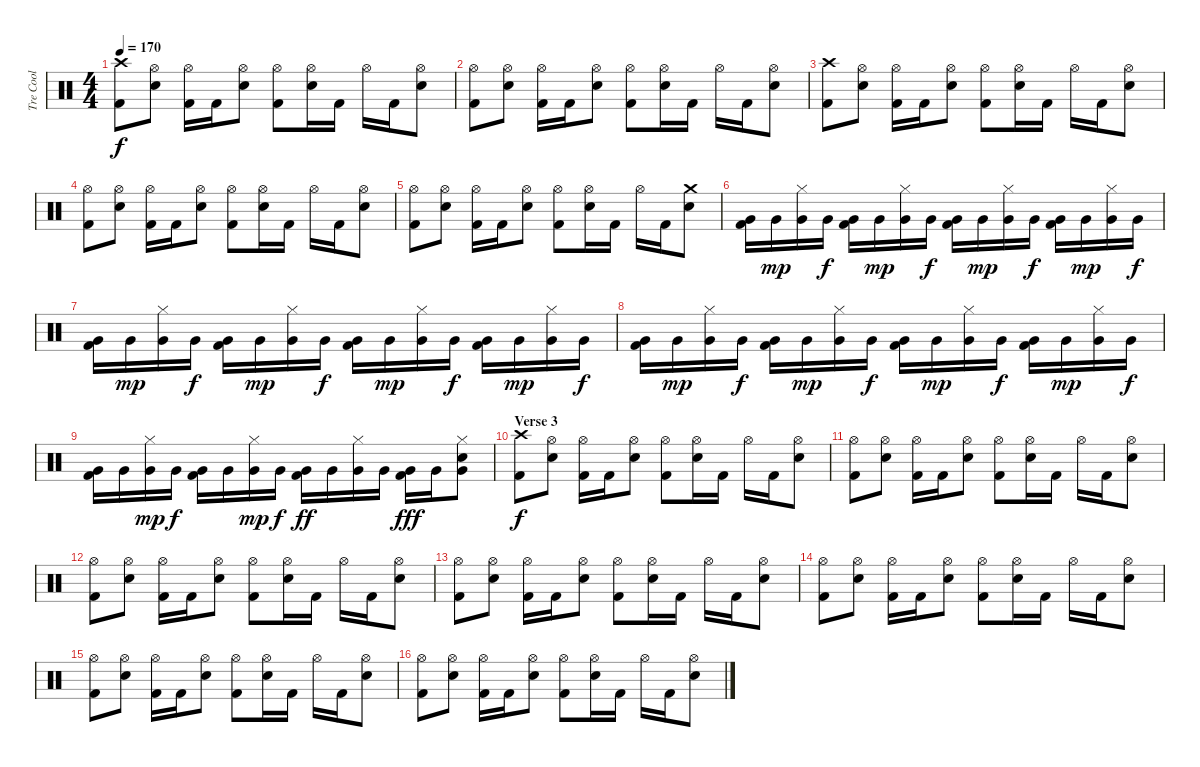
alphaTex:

\track ("Tre Cool" "Tre Cool") {instrument percussion}
\staff {score}
\articulation defaults
\ts (4 4)
\tempo 170
\clef neutral
\ks c
("Crash high (hit)" "Kick (hit) 2").8{dy f} ("Hi-Hat (open)" "Electric Snare (hit)").8 ("Hi-Hat (open)" "Kick (hit) 2").16 "Kick (hit) 2".16 ("Hi-Hat (open)" "Electric Snare (hit)").8 ("Hi-Hat (open)" "Kick (hit) 2").8 ("Hi-Hat (open)" "Electric Snare (hit)").16 "Kick (hit) 2".16 "Hi-Hat (open)".16 "Kick (hit) 2".16 ("Hi-Hat (open)" "Electric Snare (hit)").8 |
("Hi-Hat (open)" "Kick (hit) 2").8 ("Hi-Hat (open)" "Electric Snare (hit)").8 ("Hi-Hat (open)" "Kick (hit) 2").16 "Kick (hit) 2".16 ("Hi-Hat (open)" "Electric Snare (hit)").8 ("Hi-Hat (open)" "Kick (hit) 2").8 ("Hi-Hat (open)" "Electric Snare (hit)").16 "Kick (hit) 2".16 "Hi-Hat (open)".16 "Kick (hit) 2".16 ("Hi-Hat (open)" "Electric Snare (hit)").8 |
("Crash high (hit)" "Kick (hit) 2").8 ("Hi-Hat (open)" "Electric Snare (hit)").8 ("Hi-Hat (open)" "Kick (hit) 2").16 "Kick (hit) 2".16 ("Hi-Hat (open)" "Electric Snare (hit)").8 ("Hi-Hat (open)" "Kick (hit) 2").8 ("Hi-Hat (open)" "Electric Snare (hit)").16 "Kick (hit) 2".16 "Hi-Hat (open)".16 "Kick (hit) 2".16 ("Hi-Hat (open)" "Electric Snare (hit)").8 |
("Hi-Hat (open)" "Kick (hit) 2").8 ("Hi-Hat (open)" "Electric Snare (hit)").8 ("Hi-Hat (open)" "Kick (hit) 2").16 "Kick (hit) 2".16 ("Hi-Hat (open)" "Electric Snare (hit)").8 ("Hi-Hat (open)" "Kick (hit) 2").8 ("Hi-Hat (open)" "Electric Snare (hit)").16 "Kick (hit) 2".16 "Hi-Hat (open)".16 "Kick (hit) 2".16 ("Hi-Hat (open)" "Electric Snare (hit)").8 |
("Hi-Hat (open)" "Kick (hit) 2").8 ("Hi-Hat (open)" "Electric Snare (hit)").8 ("Hi-Hat (open)" "Kick (hit) 2").16 "Kick (hit) 2".16 ("Hi-Hat (open)" "Electric Snare (hit)").8 ("Hi-Hat (open)" "Kick (hit) 2").8 ("Hi-Hat (open)" "Electric Snare (hit)").16 "Kick (hit) 2".16 "Hi-Hat (open)".16 "Kick (hit) 2".16 ("Crash medium (hit)" "Electric Snare (hit)").8 |
("Very Low Tom (hit)" "Kick (hit) 2").16 "Very Low Tom (hit)".16{dy mp} ("Hi-Hat (closed)" "Very Low Tom (hit)").16 "Very Low Tom (hit)".16{dy f} ("Very Low Tom (hit)" "Kick (hit) 2").16 "Very Low Tom (hit)".16{dy mp} ("Hi-Hat (closed)" "Very Low Tom (hit)").16 "Very Low Tom (hit)".16{dy f} ("Very Low Tom (hit)" "Kick (hit) 2").16 "Very Low Tom (hit)".16{dy mp} ("Hi-Hat (closed)" "Very Low Tom (hit)").16 "Very Low Tom (hit)".16{dy f} ("Very Low Tom (hit)" "Kick (hit) 2").16 "Very Low Tom (hit)".16{dy mp} ("Hi-Hat (closed)" "Very Low Tom (hit)").16 "Very Low Tom (hit)".16{dy f} |
("Very Low Tom (hit)" "Kick (hit) 2").16 "Very Low Tom (hit)".16{dy mp} ("Hi-Hat (closed)" "Very Low Tom (hit)").16 "Very Low Tom (hit)".16{dy f} ("Very Low Tom (hit)" "Kick (hit) 2").16 "Very Low Tom (hit)".16{dy mp} ("Hi-Hat (closed)" "Very Low Tom (hit)").16 "Very Low Tom (hit)".16{dy f} ("Very Low Tom (hit)" "Kick (hit) 2").16 "Very Low Tom (hit)".16{dy mp} ("Hi-Hat (closed)" "Very Low Tom (hit)").16 "Very Low Tom (hit)".16{dy f} ("Very Low Tom (hit)" "Kick (hit) 2").16 "Very Low Tom (hit)".16{dy mp} ("Hi-Hat (closed)" "Very Low Tom (hit)").16 "Very Low Tom (hit)".16{dy f} |
("Very Low Tom (hit)" "Kick (hit) 2").16 "Very Low Tom (hit)".16{dy mp} ("Hi-Hat (closed)" "Very Low Tom (hit)").16 "Very Low Tom (hit)".16{dy f} ("Very Low Tom (hit)" "Kick (hit) 2").16 "Very Low Tom (hit)".16{dy mp} ("Hi-Hat (closed)" "Very Low Tom (hit)").16 "Very Low Tom (hit)".16{dy f} ("Very Low Tom (hit)" "Kick (hit) 2").16 "Very Low Tom (hit)".16{dy mp} ("Hi-Hat (closed)" "Very Low Tom (hit)").16 "Very Low Tom (hit)".16{dy f} ("Very Low Tom (hit)" "Kick (hit) 2").16 "Very Low Tom (hit)".16{dy mp} ("Hi-Hat (closed)" "Very Low Tom (hit)").16 "Very Low Tom (hit)".16{dy f} |
("Very Low Tom (hit)" "Kick (hit) 2").16 "Very Low Tom (hit)".16 ("Hi-Hat (closed)" "Very Low Tom (hit)").16{dy mp} "Very Low Tom (hit)".16{dy f} ("Very Low Tom (hit)" "Kick (hit) 2").16 "Very Low Tom (hit)".16 ("Hi-Hat (closed)" "Very Low Tom (hit)").16{dy mp} "Very Low Tom (hit)".16{dy f} ("Very Low Tom (hit)" "Kick (hit) 2").16{dy ff} "Very Low Tom (hit)".16 ("Hi-Hat (closed)" "Very Low Tom (hit)").16 "Very Low Tom (hit)".16 ("Very Low Tom (hit)" "Kick (hit) 2").16{dy fff} "Very Low Tom (hit)".16 ("Hi-Hat (closed)" "Electric Snare (hit)" "Very Low Tom (hit)").8 |
\section ("" "Verse 3")
("Crash high (hit)" "Kick (hit) 2").8{dy f} ("Hi-Hat (open)" "Electric Snare (hit)").8 ("Hi-Hat (open)" "Kick (hit) 2").16 "Kick (hit) 2".16 ("Hi-Hat (open)" "Electric Snare (hit)").8 ("Hi-Hat (open)" "Kick (hit) 2").8 ("Hi-Hat (open)" "Electric Snare (hit)").16 "Kick (hit) 2".16 "Hi-Hat (open)".16 "Kick (hit) 2".16 ("Hi-Hat (open)" "Electric Snare (hit)").8 |
("Hi-Hat (open)" "Kick (hit) 2").8 ("Hi-Hat (open)" "Electric Snare (hit)").8 ("Hi-Hat (open)" "Kick (hit) 2").16 "Kick (hit) 2".16 ("Hi-Hat (open)" "Electric Snare (hit)").8 ("Hi-Hat (open)" "Kick (hit) 2").8 ("Hi-Hat (open)" "Electric Snare (hit)").16 "Kick (hit) 2".16 "Hi-Hat (open)".16 "Kick (hit) 2".16 ("Hi-Hat (open)" "Electric Snare (hit)").8 |
("Hi-Hat (open)" "Kick (hit) 2").8 ("Hi-Hat (open)" "Electric Snare (hit)").8 ("Hi-Hat (open)" "Kick (hit) 2").16 "Kick (hit) 2".16 ("Hi-Hat (open)" "Electric Snare (hit)").8 ("Hi-Hat (open)" "Kick (hit) 2").8 ("Hi-Hat (open)" "Electric Snare (hit)").16 "Kick (hit) 2".16 "Hi-Hat (open)".16 "Kick (hit) 2".16 ("Hi-Hat (open)" "Electric Snare (hit)").8 |
("Hi-Hat (open)" "Kick (hit) 2").8 ("Hi-Hat (open)" "Electric Snare (hit)").8 ("Hi-Hat (open)" "Kick (hit) 2").16 "Kick (hit) 2".16 ("Hi-Hat (open)" "Electric Snare (hit)").8 ("Hi-Hat (open)" "Kick (hit) 2").8 ("Hi-Hat (open)" "Electric Snare (hit)").16 "Kick (hit) 2".16 "Hi-Hat (open)".16 "Kick (hit) 2".16 ("Hi-Hat (open)" "Electric Snare (hit)").8 |
("Hi-Hat (open)" "Kick (hit) 2").8 ("Hi-Hat (open)" "Electric Snare (hit)").8 ("Hi-Hat (open)" "Kick (hit) 2").16 "Kick (hit) 2".16 ("Hi-Hat (open)" "Electric Snare (hit)").8 ("Hi-Hat (open)" "Kick (hit) 2").8 ("Hi-Hat (open)" "Electric Snare (hit)").16 "Kick (hit) 2".16 "Hi-Hat (open)".16 "Kick (hit) 2".16 ("Hi-Hat (open)" "Electric Snare (hit)").8 |
("Hi-Hat (open)" "Kick (hit) 2").8 ("Hi-Hat (open)" "Electric Snare (hit)").8 ("Hi-Hat (open)" "Kick (hit) 2").16 "Kick (hit) 2".16 ("Hi-Hat (open)" "Electric Snare (hit)").8 ("Hi-Hat (open)" "Kick (hit) 2").8 ("Hi-Hat (open)" "Electric Snare (hit)").16 "Kick (hit) 2".16 "Hi-Hat (open)".16 "Kick (hit) 2".16 ("Hi-Hat (open)" "Electric Snare (hit)").8 |
("Hi-Hat (open)" "Kick (hit) 2").8 ("Hi-Hat (open)" "Electric Snare (hit)").8 ("Hi-Hat (open)" "Kick (hit) 2").16 "Kick (hit) 2".16 ("Hi-Hat (open)" "Electric Snare (hit)").8 ("Hi-Hat (open)" "Kick (hit) 2").8 ("Hi-Hat (open)" "Electric Snare (hit)").16 "Kick (hit) 2".16 "Hi-Hat (open)".16 "Kick (hit) 2".16 ("Hi-Hat (open)" "Electric Snare (hit)").8
